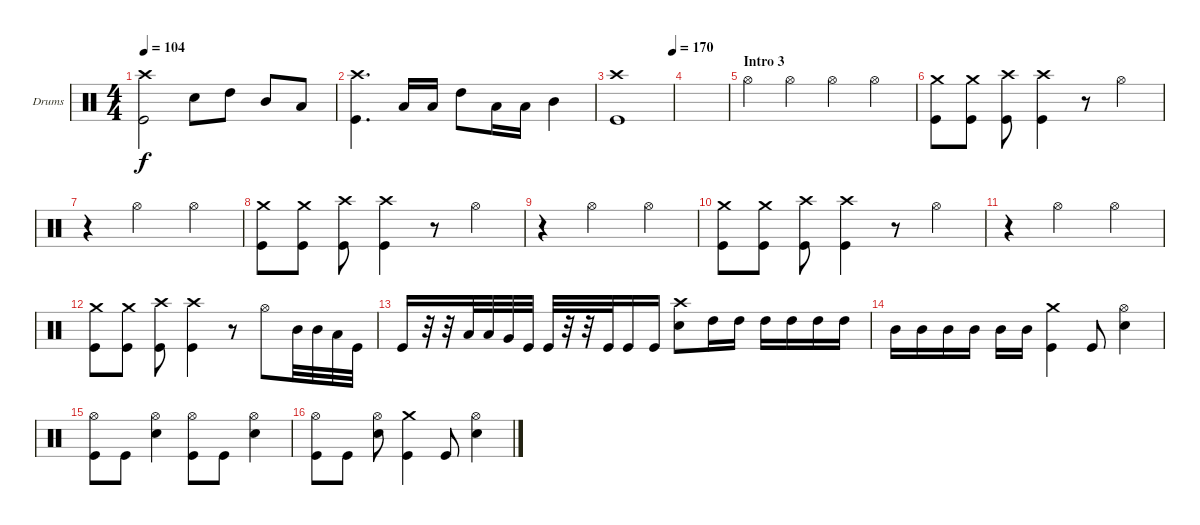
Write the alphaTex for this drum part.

\defaultSystemsLayout 4
\bracketExtendMode groupsimilarinstruments
\firstSystemTrackNameOrientation horizontal
\otherSystemsTrackNameOrientation horizontal
\track ("Jimmy \"The Hammer\" - Drums" "Drums") {instrument percussion}
\staff {score}
\articulation defaults
\ts (4 4)
\tempo 104
\clef neutral
\scale
0.333333
\ks c
("Crash high (hit)" "Kick (hit)").2{dy f} "Snare (hit) 2".8 "High Tom (hit)".8 "Mid Tom (hit)".8 "Low Tom (hit)".8 |
\scale
0.333333 ("Kick (hit)" "Crash high (hit)").4{d} "Low Tom (hit)".16 "Low Tom (hit)".16 "High Tom (hit)".8 "Low Tom (hit)".16 "Low Tom (hit)".16 "Mid Tom (hit)".4 |
\tempo (170 1)
\scale
0.333333 ("Kick (hit)" "Crash high (hit)").1 |
\scale
0.333333 |
\section ("" "Intro 3")
"Hi-Hat (open)".4 "Hi-Hat (open)".4 "Hi-Hat (open)".4 "Hi-Hat (open)".4 |
("Kick (hit)" "Crash medium (hit)").8 ("Kick (hit)" "Crash medium (hit)").8 ("Kick (hit)" "Crash high (hit)").8 ("Kick (hit)" "Crash high (hit)").4 r.8 "Hi-Hat (open)".4 |
r.4 "Hi-Hat (open)".2 "Hi-Hat (open)".4 |
("Kick (hit)" "Crash medium (hit)").8 ("Kick (hit)" "Crash medium (hit)").8 ("Kick (hit)" "Crash high (hit)").8 ("Kick (hit)" "Crash high (hit)").4 r.8 "Hi-Hat (open)".4 |
r.4 "Hi-Hat (open)".2 "Hi-Hat (open)".4 |
("Kick (hit)" "Crash medium (hit)").8 ("Kick (hit)" "Crash medium (hit)").8 ("Kick (hit)" "Crash high (hit)").8 ("Kick (hit)" "Crash high (hit)").4 r.8 "Hi-Hat (open)".4 |
r.4 "Hi-Hat (open)".2 "Hi-Hat (open)".4 |
("Kick (hit)" "Crash medium (hit)").8 ("Kick (hit)" "Crash medium (hit)").8 ("Kick (hit)" "Crash high (hit)").8 ("Kick (hit)" "Crash high (hit)").4 r.8 "Hi-Hat (open)".8 "Mid Tom (hit)".32 "Mid Tom (hit)".32 "Low Tom (hit)".32 "Kick (hit)".32 |
"Kick (hit)".16 r.32 r.32 "Low Tom (hit)".32 "Low Tom (hit)".32 "Very Low Tom (hit)".32 "Kick (hit)".32 "Kick (hit)".32 r.32 r.32 "Kick (hit)".32 "Kick (hit)".16 "Kick (hit)".16 ("Snare (hit) 2" "Crash high (hit)").8 "High Tom (hit)".16 "High Tom (hit)".16 "High Tom (hit)".16 "High Tom (hit)".16 "High Tom (hit)".16 "High Tom (hit)".16 |
"Mid Tom (hit)".16 "Mid Tom (hit)".16 "Mid Tom (hit)".16 "Mid Tom (hit)".16 "Mid Tom (hit)".16 "Mid Tom (hit)".16 ("Kick (hit)" "Crash medium (hit)").4 "Kick (hit)".8 ("Snare (hit) 2" "Hi-Hat (open)").4 |
("Hi-Hat (open)" "Kick (hit)").8 "Kick (hit)".8 ("Snare (hit) 2" "Hi-Hat (open)").4 ("Hi-Hat (open)" "Kick (hit)").8 "Kick (hit)".8 ("Snare (hit) 2" "Hi-Hat (open)").4 |
("Hi-Hat (open)" "Kick (hit)").8 "Kick (hit)".8 ("Snare (hit) 2" "Hi-Hat (open)").8 ("Kick (hit)" "Crash medium (hit)").4 "Kick (hit)".8 ("Snare (hit) 2" "Hi-Hat (open)").4
